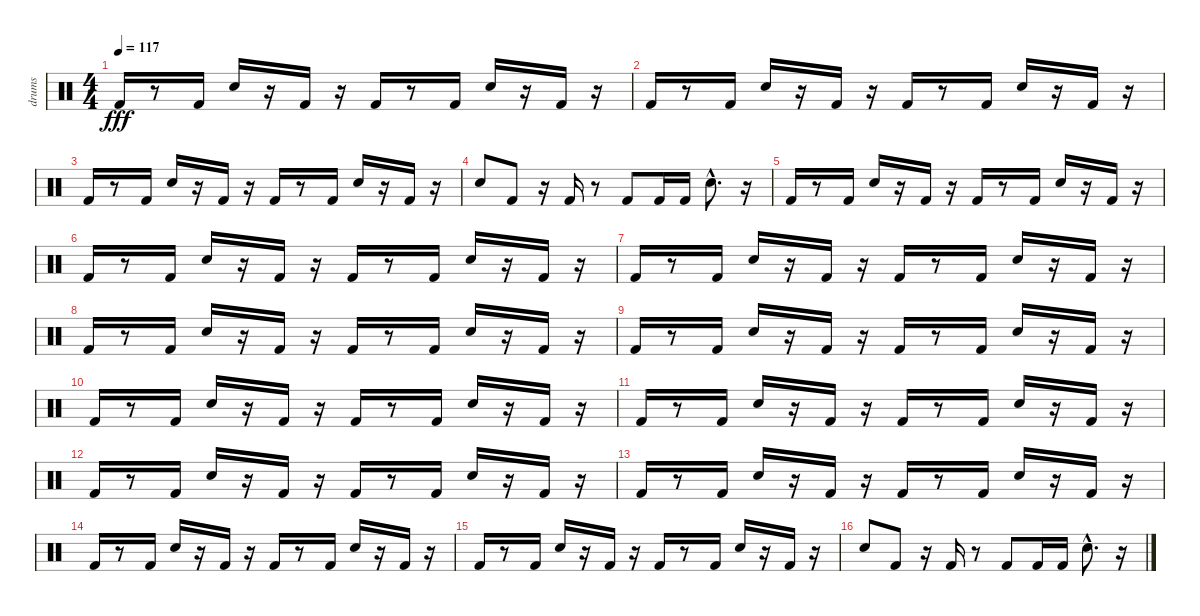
\track ("drums" "drums") {instrument percussion}
\staff {score}
\articulation defaults
\ts (4 4)
\tempo 117
\clef neutral
\ks c "Kick (hit) 2".16{dy fff}
r.8 "Kick (hit) 2".16 "Snare (hit) 2".16 r.16 "Kick (hit) 2".16 r.16 "Kick (hit) 2".16 r.8 "Kick (hit) 2".16 "Snare (hit) 2".16 r.16 "Kick (hit) 2".16 r.16 |
"Kick (hit) 2".16 r.8 "Kick (hit) 2".16 "Snare (hit) 2".16 r.16 "Kick (hit) 2".16 r.16 "Kick (hit) 2".16 r.8 "Kick (hit) 2".16 "Snare (hit) 2".16 r.16 "Kick (hit) 2".16 r.16 |
"Kick (hit) 2".16 r.8 "Kick (hit) 2".16 "Snare (hit) 2".16 r.16 "Kick (hit) 2".16 r.16 "Kick (hit) 2".16 r.8 "Kick (hit) 2".16 "Snare (hit) 2".16 r.16 "Kick (hit) 2".16 r.16 |
"Snare (hit) 2".8 "Kick (hit) 2".8 r.16 "Kick (hit) 2".16 r.8 "Kick (hit) 2".8 "Kick (hit) 2".16 "Kick (hit) 2".16 "Snare (hit) 2"{hac}.8{d} r.16 |
"Kick (hit) 2".16{volume 16} r.8 "Kick (hit) 2".16{volume 16} "Snare (hit) 2".16 r.16 "Kick (hit) 2".16{volume 16} r.16 "Kick (hit) 2".16{volume 15} r.8 "Kick (hit) 2".16{volume 15} "Snare (hit) 2".16 r.16 "Kick (hit) 2".16{volume 15} r.16 |
"Kick (hit) 2".16{volume 15} r.8 "Kick (hit) 2".16{volume 14} "Snare (hit) 2".16{volume 14} r.16 "Kick (hit) 2".16{volume 14} r.16 "Kick (hit) 2".16{volume 14} r.8 "Kick (hit) 2".16{volume 14} "Snare (hit) 2".16{volume 14} r.16 "Kick (hit) 2".16{volume 14} r.16 |
"Kick (hit) 2".16{volume 13} r.8 "Kick (hit) 2".16{volume 13} "Snare (hit) 2".16 r.16 "Kick (hit) 2".16{volume 13} r.16 "Kick (hit) 2".16{volume 13} r.8 "Kick (hit) 2".16{volume 12} "Snare (hit) 2".16{volume 12} r.16 "Kick (hit) 2".16{volume 12} r.16 |
"Kick (hit) 2".16{volume 12} r.8 "Kick (hit) 2".16{volume 12} "Snare (hit) 2".16{volume 12} r.16 "Kick (hit) 2".16{volume 12} r.16 "Kick (hit) 2".16{volume 11} r.8 "Kick (hit) 2".16{volume 11} "Snare (hit) 2".16 r.16 "Kick (hit) 2".16{volume 11} r.16 |
"Kick (hit) 2".16{volume 11} r.8 "Kick (hit) 2".16{volume 10} "Snare (hit) 2".16{volume 10} r.16 "Kick (hit) 2".16{volume 10} r.16 "Kick (hit) 2".16{volume 10} r.8 "Kick (hit) 2".16{volume 10} "Snare (hit) 2".16{volume 10} r.16 "Kick (hit) 2".16{volume 10} r.16 |
"Kick (hit) 2".16{volume 9} r.8 "Kick (hit) 2".16{volume 9} "Snare (hit) 2".16{volume 9} r.16 "Kick (hit) 2".16{volume 9} r.16 "Kick (hit) 2".16{volume 9} r.8 "Kick (hit) 2".16{volume 8} "Snare (hit) 2".16 r.16 "Kick (hit) 2".16{volume 8} r.16 |
"Kick (hit) 2".16{volume 8} r.8 "Kick (hit) 2".16{volume 8} "Snare (hit) 2".16{volume 8} r.16 "Kick (hit) 2".16{volume 8} r.16 "Kick (hit) 2".16{volume 7} r.8 "Kick (hit) 2".16{volume 7} "Snare (hit) 2".16{volume 7} r.16 "Kick (hit) 2".16{volume 7} r.16 |
"Kick (hit) 2".16{volume 7} r.8 "Kick (hit) 2".16{volume 6} "Snare (hit) 2".16 r.16 "Kick (hit) 2".16{volume 6} r.16 "Kick (hit) 2".16{volume 6} r.8 "Kick (hit) 2".16{volume 6} "Snare (hit) 2".16{volume 6} r.16 "Kick (hit) 2".16{volume 6} r.16 |
"Kick (hit) 2".16{volume 5} r.8 "Kick (hit) 2".16{volume 5} "Snare (hit) 2".16{volume 5} r.16 "Kick (hit) 2".16{volume 5} r.16 "Kick (hit) 2".16{volume 5} r.8 "Kick (hit) 2".16{volume 4} "Snare (hit) 2".16{volume 4} r.16 "Kick (hit) 2".16{volume 4} r.16 |
"Kick (hit) 2".16{volume 4} r.8 "Kick (hit) 2".16{volume 4} "Snare (hit) 2".16 r.16 "Kick (hit) 2".16{volume 4} r.16 "Kick (hit) 2".16{volume 3} r.8 "Kick (hit) 2".16{volume 3} "Snare (hit) 2".16{volume 3} r.16 "Kick (hit) 2".16{volume 3} r.16 |
"Kick (hit) 2".16{volume 3} r.8 "Kick (hit) 2".16{volume 2} "Snare (hit) 2".16{volume 2} r.16 "Kick (hit) 2".16{volume 2} r.16 "Kick (hit) 2".16{volume 2} r.8 "Kick (hit) 2".16{volume 2} "Snare (hit) 2".16 r.16 "Kick (hit) 2".16{volume 2} r.16 |
"Snare (hit) 2".8{volume 1} "Kick (hit) 2".8{volume 1} r.16 "Kick (hit) 2".16{volume 1} r.8 "Kick (hit) 2".8{volume 1} "Kick (hit) 2".16{volume 0} "Kick (hit) 2".16 "Snare (hit) 2"{hac}.8{d volume 0} r.16
